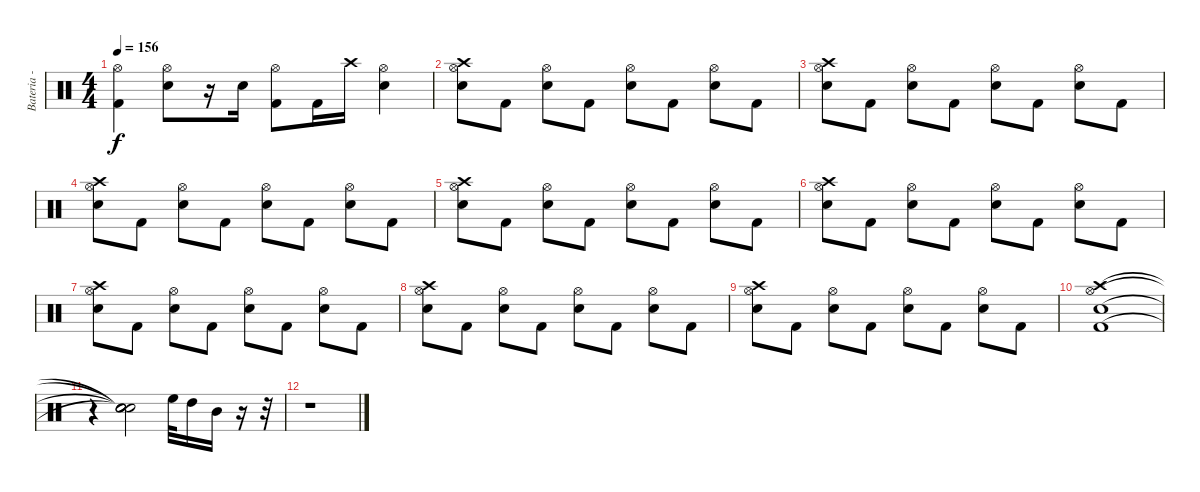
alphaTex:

\track ("Bateria - Kalú" "Bateria - ") {instrument percussion}
\staff {score}
\articulation defaults
\ts (4 4)
\tempo 156
\clef neutral
\ks c
("Hi-Hat (open)" "Kick (hit) 2").4{dy f} ("Hi-Hat (open)" "Electric Snare (hit)").8 r.16 "Electric Snare (hit)".16 ("Hi-Hat (open)" "Kick (hit) 2").8 "Kick (hit) 2".16 "Crash high (hit)".16 ("Hi-Hat (open)" "Electric Snare (hit)").4 |
("Crash high (hit)" "Hi-Hat (open)" "Electric Snare (hit)").8 "Kick (hit) 2".8 ("Hi-Hat (open)" "Electric Snare (hit)").8 "Kick (hit) 2".8 ("Hi-Hat (open)" "Electric Snare (hit)").8 "Kick (hit) 2".8 ("Hi-Hat (open)" "Electric Snare (hit)").8 "Kick (hit) 2".8 |
("Crash high (hit)" "Hi-Hat (open)" "Electric Snare (hit)").8 "Kick (hit) 2".8 ("Hi-Hat (open)" "Electric Snare (hit)").8 "Kick (hit) 2".8 ("Hi-Hat (open)" "Electric Snare (hit)").8 "Kick (hit) 2".8 ("Hi-Hat (open)" "Electric Snare (hit)").8 "Kick (hit) 2".8 |
("Crash high (hit)" "Hi-Hat (open)" "Electric Snare (hit)").8 "Kick (hit) 2".8 ("Hi-Hat (open)" "Electric Snare (hit)").8 "Kick (hit) 2".8 ("Hi-Hat (open)" "Electric Snare (hit)").8 "Kick (hit) 2".8 ("Hi-Hat (open)" "Electric Snare (hit)").8 "Kick (hit) 2".8 |
("Crash high (hit)" "Hi-Hat (open)" "Electric Snare (hit)").8 "Kick (hit) 2".8 ("Hi-Hat (open)" "Electric Snare (hit)").8 "Kick (hit) 2".8 ("Hi-Hat (open)" "Electric Snare (hit)").8 "Kick (hit) 2".8 ("Hi-Hat (open)" "Electric Snare (hit)").8 "Kick (hit) 2".8 |
("Crash high (hit)" "Hi-Hat (open)" "Electric Snare (hit)").8 "Kick (hit) 2".8 ("Hi-Hat (open)" "Electric Snare (hit)").8 "Kick (hit) 2".8 ("Hi-Hat (open)" "Electric Snare (hit)").8 "Kick (hit) 2".8 ("Hi-Hat (open)" "Electric Snare (hit)").8 "Kick (hit) 2".8 |
("Crash high (hit)" "Hi-Hat (open)" "Electric Snare (hit)").8 "Kick (hit) 2".8 ("Hi-Hat (open)" "Electric Snare (hit)").8 "Kick (hit) 2".8 ("Hi-Hat (open)" "Electric Snare (hit)").8 "Kick (hit) 2".8 ("Hi-Hat (open)" "Electric Snare (hit)").8 "Kick (hit) 2".8 |
("Crash high (hit)" "Hi-Hat (open)" "Electric Snare (hit)").8 "Kick (hit) 2".8 ("Hi-Hat (open)" "Electric Snare (hit)").8 "Kick (hit) 2".8 ("Hi-Hat (open)" "Electric Snare (hit)").8 "Kick (hit) 2".8 ("Hi-Hat (open)" "Electric Snare (hit)").8 "Kick (hit) 2".8 |
("Crash high (hit)" "Hi-Hat (open)" "Electric Snare (hit)").8 "Kick (hit) 2".8 ("Hi-Hat (open)" "Electric Snare (hit)").8 "Kick (hit) 2".8 ("Hi-Hat (open)" "Electric Snare (hit)").8 "Kick (hit) 2".8 ("Hi-Hat (open)" "Electric Snare (hit)").8 "Kick (hit) 2".8 |
("Hi-Hat (open)" "Crash high (hit)" "Electric Snare (hit)" "Kick (hit) 2").1 |
r.4 ("Snare (hit)"{t} "Snare (hit)"{t} "Snare (hit)"{t} "Snare (hit)"{t}).2 "High Floor Tom (hit)".32 "High Tom (hit)".16 "Mid Tom (hit)".16 r.16 r.32 |
r.1
